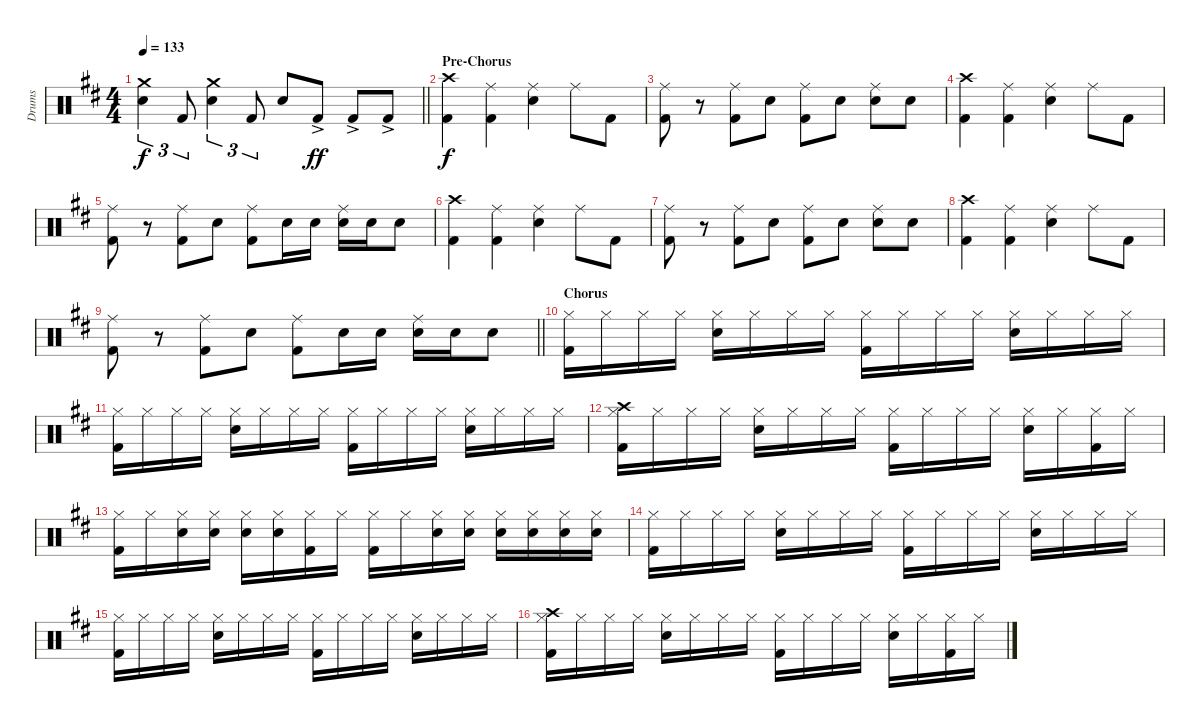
\track ("Drums" "Drums") {instrument percussion}
\staff {score}
\articulation defaults
\ts (4 4)
\tempo 133
\clef neutral
\barLineRight lightlight
\ks d
("Crash medium (hit)" "Snare (hit) 2").4{tu (3 2) dy f} "Kick (hit) 2".8{tu (3 2)} ("Crash medium (hit)" "Snare (hit) 2").4{tu (3 2)} "Kick (hit) 2".8{tu (3 2)} "Snare (hit) 2".8 "Kick (hit) 2"{ac}.8{dy ff} "Kick (hit) 2"{ac}.8 "Kick (hit) 2"{ac}.8 |
\section ("" "Pre-Chorus")
("Crash high (hit)" "Kick (hit) 2").4{dy f} ("Ride (middle)" "Kick (hit) 2").4 ("Ride (middle)" "Snare (hit) 2").4 "Ride (middle)".8 "Kick (hit) 2".8 |
("Ride (middle)" "Kick (hit) 2").8 r.8 ("Ride (middle)" "Kick (hit) 2").8 "Snare (hit) 2".8 ("Ride (middle)" "Kick (hit) 2").8 "Snare (hit) 2".8 ("Ride (middle)" "Snare (hit) 2").8 "Snare (hit) 2".8 |
("Crash high (hit)" "Kick (hit) 2").4 ("Ride (middle)" "Kick (hit) 2").4 ("Ride (middle)" "Snare (hit) 2").4 "Ride (middle)".8 "Kick (hit) 2".8 |
("Ride (middle)" "Kick (hit) 2").8 r.8 ("Ride (middle)" "Kick (hit) 2").8 "Snare (hit) 2".8 ("Ride (middle)" "Kick (hit) 2").8 "Snare (hit) 2".16 "Snare (hit) 2".16 ("Ride (middle)" "Snare (hit) 2").16 "Snare (hit) 2".16 "Snare (hit) 2".8 |
("Crash high (hit)" "Kick (hit) 2").4 ("Ride (middle)" "Kick (hit) 2").4 ("Ride (middle)" "Snare (hit) 2").4 "Ride (middle)".8 "Kick (hit) 2".8 |
("Ride (middle)" "Kick (hit) 2").8 r.8 ("Ride (middle)" "Kick (hit) 2").8 "Snare (hit) 2".8 ("Ride (middle)" "Kick (hit) 2").8 "Snare (hit) 2".8 ("Ride (middle)" "Snare (hit) 2").8 "Snare (hit) 2".8 |
("Crash high (hit)" "Kick (hit) 2").4 ("Ride (middle)" "Kick (hit) 2").4 ("Ride (middle)" "Snare (hit) 2").4 "Ride (middle)".8 "Kick (hit) 2".8 |
\barLineRight lightlight
("Ride (middle)" "Kick (hit) 2").8 r.8 ("Ride (middle)" "Kick (hit) 2").8 "Snare (hit) 2".8 ("Ride (middle)" "Kick (hit) 2").8 "Snare (hit) 2".16 "Snare (hit) 2".16 ("Ride (middle)" "Snare (hit) 2").16 "Snare (hit) 2".16 "Snare (hit) 2".8 |
\section ("" "Chorus")
("Hi-Hat (closed)" "Kick (hit) 2").16 "Hi-Hat (closed)".16 "Hi-Hat (closed)".16 "Hi-Hat (closed)".16 ("Hi-Hat (closed)" "Snare (hit) 2").16 "Hi-Hat (closed)".16 "Hi-Hat (closed)".16 "Hi-Hat (closed)".16 ("Hi-Hat (closed)" "Kick (hit) 2").16 "Hi-Hat (closed)".16 "Hi-Hat (closed)".16 "Hi-Hat (closed)".16 ("Hi-Hat (closed)" "Snare (hit) 2").16 "Hi-Hat (closed)".16 "Hi-Hat (closed)".16 "Hi-Hat (closed)".16 |
("Hi-Hat (closed)" "Kick (hit) 2").16 "Hi-Hat (closed)".16 "Hi-Hat (closed)".16 "Hi-Hat (closed)".16 ("Hi-Hat (closed)" "Snare (hit) 2").16 "Hi-Hat (closed)".16 "Hi-Hat (closed)".16 "Hi-Hat (closed)".16 ("Hi-Hat (closed)" "Kick (hit) 2").16 "Hi-Hat (closed)".16 "Hi-Hat (closed)".16 "Hi-Hat (closed)".16 ("Hi-Hat (closed)" "Snare (hit) 2").16 "Hi-Hat (closed)".16 "Hi-Hat (closed)".16 "Hi-Hat (closed)".16 |
("Crash high (hit)" "Hi-Hat (closed)" "Kick (hit) 2").16 "Hi-Hat (closed)".16 "Hi-Hat (closed)".16 "Hi-Hat (closed)".16 ("Hi-Hat (closed)" "Snare (hit) 2").16 "Hi-Hat (closed)".16 "Hi-Hat (closed)".16 "Hi-Hat (closed)".16 ("Hi-Hat (closed)" "Kick (hit) 2").16 "Hi-Hat (closed)".16 "Hi-Hat (closed)".16 "Hi-Hat (closed)".16 ("Hi-Hat (closed)" "Snare (hit) 2").16 "Hi-Hat (closed)".16 ("Hi-Hat (closed)" "Kick (hit) 2").16 "Hi-Hat (closed)".16 |
("Hi-Hat (closed)" "Kick (hit) 2").16 "Hi-Hat (closed)".16 ("Hi-Hat (closed)" "Snare (hit) 2").16 ("Hi-Hat (closed)" "Snare (hit) 2").16 ("Hi-Hat (closed)" "Snare (hit) 2").16 ("Hi-Hat (closed)" "Snare (hit) 2").16 ("Hi-Hat (closed)" "Kick (hit) 2").16 "Hi-Hat (closed)".16 ("Hi-Hat (closed)" "Kick (hit) 2").16 "Hi-Hat (closed)".16 ("Hi-Hat (closed)" "Snare (hit) 2").16 ("Hi-Hat (closed)" "Snare (hit) 2").16 ("Hi-Hat (closed)" "Snare (hit) 2").16 ("Hi-Hat (closed)" "Snare (hit) 2").16 ("Hi-Hat (closed)" "Snare (hit) 2").16 ("Hi-Hat (closed)" "Snare (hit) 2").16 |
("Hi-Hat (closed)" "Kick (hit) 2").16 "Hi-Hat (closed)".16 "Hi-Hat (closed)".16 "Hi-Hat (closed)".16 ("Hi-Hat (closed)" "Snare (hit) 2").16 "Hi-Hat (closed)".16 "Hi-Hat (closed)".16 "Hi-Hat (closed)".16 ("Hi-Hat (closed)" "Kick (hit) 2").16 "Hi-Hat (closed)".16 "Hi-Hat (closed)".16 "Hi-Hat (closed)".16 ("Hi-Hat (closed)" "Snare (hit) 2").16 "Hi-Hat (closed)".16 "Hi-Hat (closed)".16 "Hi-Hat (closed)".16 |
("Hi-Hat (closed)" "Kick (hit) 2").16 "Hi-Hat (closed)".16 "Hi-Hat (closed)".16 "Hi-Hat (closed)".16 ("Hi-Hat (closed)" "Snare (hit) 2").16 "Hi-Hat (closed)".16 "Hi-Hat (closed)".16 "Hi-Hat (closed)".16 ("Hi-Hat (closed)" "Kick (hit) 2").16 "Hi-Hat (closed)".16 "Hi-Hat (closed)".16 "Hi-Hat (closed)".16 ("Hi-Hat (closed)" "Snare (hit) 2").16 "Hi-Hat (closed)".16 "Hi-Hat (closed)".16 "Hi-Hat (closed)".16 |
("Crash high (hit)" "Hi-Hat (closed)" "Kick (hit) 2").16 "Hi-Hat (closed)".16 "Hi-Hat (closed)".16 "Hi-Hat (closed)".16 ("Hi-Hat (closed)" "Snare (hit) 2").16 "Hi-Hat (closed)".16 "Hi-Hat (closed)".16 "Hi-Hat (closed)".16 ("Hi-Hat (closed)" "Kick (hit) 2").16 "Hi-Hat (closed)".16 "Hi-Hat (closed)".16 "Hi-Hat (closed)".16 ("Hi-Hat (closed)" "Snare (hit) 2").16 "Hi-Hat (closed)".16 ("Hi-Hat (closed)" "Kick (hit) 2").16 "Hi-Hat (closed)".16
